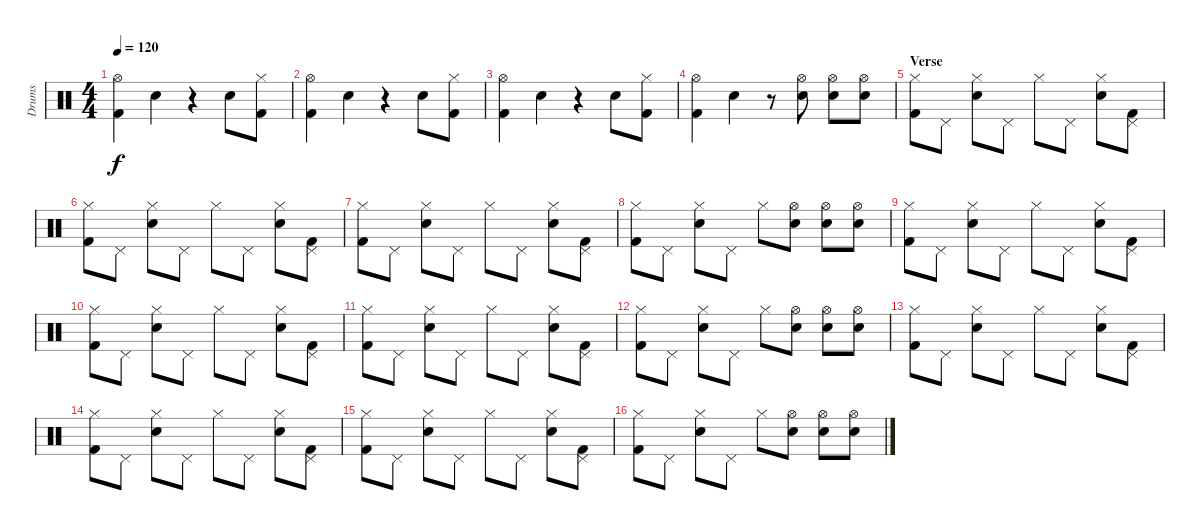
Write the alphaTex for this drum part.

\track ("Drums" "Drums") {instrument percussion}
\staff {score}
\articulation defaults
\ts (4 4)
\tempo 120
\clef neutral
\ks c
("Kick (hit) 2" "Hi-Hat (open)").4{dy f} "Electric Snare (hit)".4 r.4 "Electric Snare (hit)".8 ("Kick (hit) 2" "Hi-Hat (closed)").8 |
("Kick (hit) 2" "Hi-Hat (open)").4 "Electric Snare (hit)".4 r.4 "Electric Snare (hit)".8 ("Kick (hit) 2" "Hi-Hat (closed)").8 |
("Kick (hit) 2" "Hi-Hat (open)").4 "Electric Snare (hit)".4 r.4 "Electric Snare (hit)".8 ("Kick (hit) 2" "Hi-Hat (closed)").8 |
("Kick (hit) 2" "Hi-Hat (open)").4 "Electric Snare (hit)".4 r.8 ("Snare (hit) 2" "Hi-Hat (open)").8 ("Snare (hit) 2" "Hi-Hat (open)").8 ("Snare (hit) 2" "Hi-Hat (open)").8 |
\section ("" "Verse")
("Kick (hit) 2" "Hi-Hat (closed)").8 "Pedal Hi-Hat (hit)".8 ("Electric Snare (hit)" "Hi-Hat (closed)").8 "Pedal Hi-Hat (hit)".8 "Hi-Hat (closed)".8 "Pedal Hi-Hat (hit)".8 ("Electric Snare (hit)" "Hi-Hat (closed)").8 ("Kick (hit) 2" "Pedal Hi-Hat (hit)").8 |
("Kick (hit) 2" "Hi-Hat (closed)").8 "Pedal Hi-Hat (hit)".8 ("Electric Snare (hit)" "Hi-Hat (closed)").8 "Pedal Hi-Hat (hit)".8 "Hi-Hat (closed)".8 "Pedal Hi-Hat (hit)".8 ("Electric Snare (hit)" "Hi-Hat (closed)").8 ("Kick (hit) 2" "Pedal Hi-Hat (hit)").8 |
("Kick (hit) 2" "Hi-Hat (closed)").8 "Pedal Hi-Hat (hit)".8 ("Electric Snare (hit)" "Hi-Hat (closed)").8 "Pedal Hi-Hat (hit)".8 "Hi-Hat (closed)".8 "Pedal Hi-Hat (hit)".8 ("Electric Snare (hit)" "Hi-Hat (closed)").8 ("Kick (hit) 2" "Pedal Hi-Hat (hit)").8 |
("Kick (hit) 2" "Hi-Hat (closed)").8 "Pedal Hi-Hat (hit)".8 ("Electric Snare (hit)" "Hi-Hat (closed)").8 "Pedal Hi-Hat (hit)".8 "Hi-Hat (closed)".8 ("Snare (hit) 2" "Hi-Hat (open)").8 ("Snare (hit) 2" "Hi-Hat (open)").8 ("Snare (hit) 2" "Hi-Hat (open)").8 |
("Kick (hit) 2" "Hi-Hat (closed)").8 "Pedal Hi-Hat (hit)".8 ("Electric Snare (hit)" "Hi-Hat (closed)").8 "Pedal Hi-Hat (hit)".8 "Hi-Hat (closed)".8 "Pedal Hi-Hat (hit)".8 ("Electric Snare (hit)" "Hi-Hat (closed)").8 ("Kick (hit) 2" "Pedal Hi-Hat (hit)").8 |
("Kick (hit) 2" "Hi-Hat (closed)").8 "Pedal Hi-Hat (hit)".8 ("Electric Snare (hit)" "Hi-Hat (closed)").8 "Pedal Hi-Hat (hit)".8 "Hi-Hat (closed)".8 "Pedal Hi-Hat (hit)".8 ("Electric Snare (hit)" "Hi-Hat (closed)").8 ("Kick (hit) 2" "Pedal Hi-Hat (hit)").8 |
("Kick (hit) 2" "Hi-Hat (closed)").8 "Pedal Hi-Hat (hit)".8 ("Electric Snare (hit)" "Hi-Hat (closed)").8 "Pedal Hi-Hat (hit)".8 "Hi-Hat (closed)".8 "Pedal Hi-Hat (hit)".8 ("Electric Snare (hit)" "Hi-Hat (closed)").8 ("Kick (hit) 2" "Pedal Hi-Hat (hit)").8 |
("Kick (hit) 2" "Hi-Hat (closed)").8 "Pedal Hi-Hat (hit)".8 ("Electric Snare (hit)" "Hi-Hat (closed)").8 "Pedal Hi-Hat (hit)".8 "Hi-Hat (closed)".8 ("Snare (hit) 2" "Hi-Hat (open)").8 ("Snare (hit) 2" "Hi-Hat (open)").8 ("Snare (hit) 2" "Hi-Hat (open)").8 |
("Kick (hit) 2" "Hi-Hat (closed)").8 "Pedal Hi-Hat (hit)".8 ("Electric Snare (hit)" "Hi-Hat (closed)").8 "Pedal Hi-Hat (hit)".8 "Hi-Hat (closed)".8 "Pedal Hi-Hat (hit)".8 ("Electric Snare (hit)" "Hi-Hat (closed)").8 ("Kick (hit) 2" "Pedal Hi-Hat (hit)").8 |
("Kick (hit) 2" "Hi-Hat (closed)").8 "Pedal Hi-Hat (hit)".8 ("Electric Snare (hit)" "Hi-Hat (closed)").8 "Pedal Hi-Hat (hit)".8 "Hi-Hat (closed)".8 "Pedal Hi-Hat (hit)".8 ("Electric Snare (hit)" "Hi-Hat (closed)").8 ("Kick (hit) 2" "Pedal Hi-Hat (hit)").8 |
("Kick (hit) 2" "Hi-Hat (closed)").8 "Pedal Hi-Hat (hit)".8 ("Electric Snare (hit)" "Hi-Hat (closed)").8 "Pedal Hi-Hat (hit)".8 "Hi-Hat (closed)".8 "Pedal Hi-Hat (hit)".8 ("Electric Snare (hit)" "Hi-Hat (closed)").8 ("Kick (hit) 2" "Pedal Hi-Hat (hit)").8 |
("Kick (hit) 2" "Hi-Hat (closed)").8 "Pedal Hi-Hat (hit)".8 ("Electric Snare (hit)" "Hi-Hat (closed)").8 "Pedal Hi-Hat (hit)".8 "Hi-Hat (closed)".8 ("Snare (hit) 2" "Hi-Hat (open)").8 ("Snare (hit) 2" "Hi-Hat (open)").8 ("Snare (hit) 2" "Hi-Hat (open)").8
